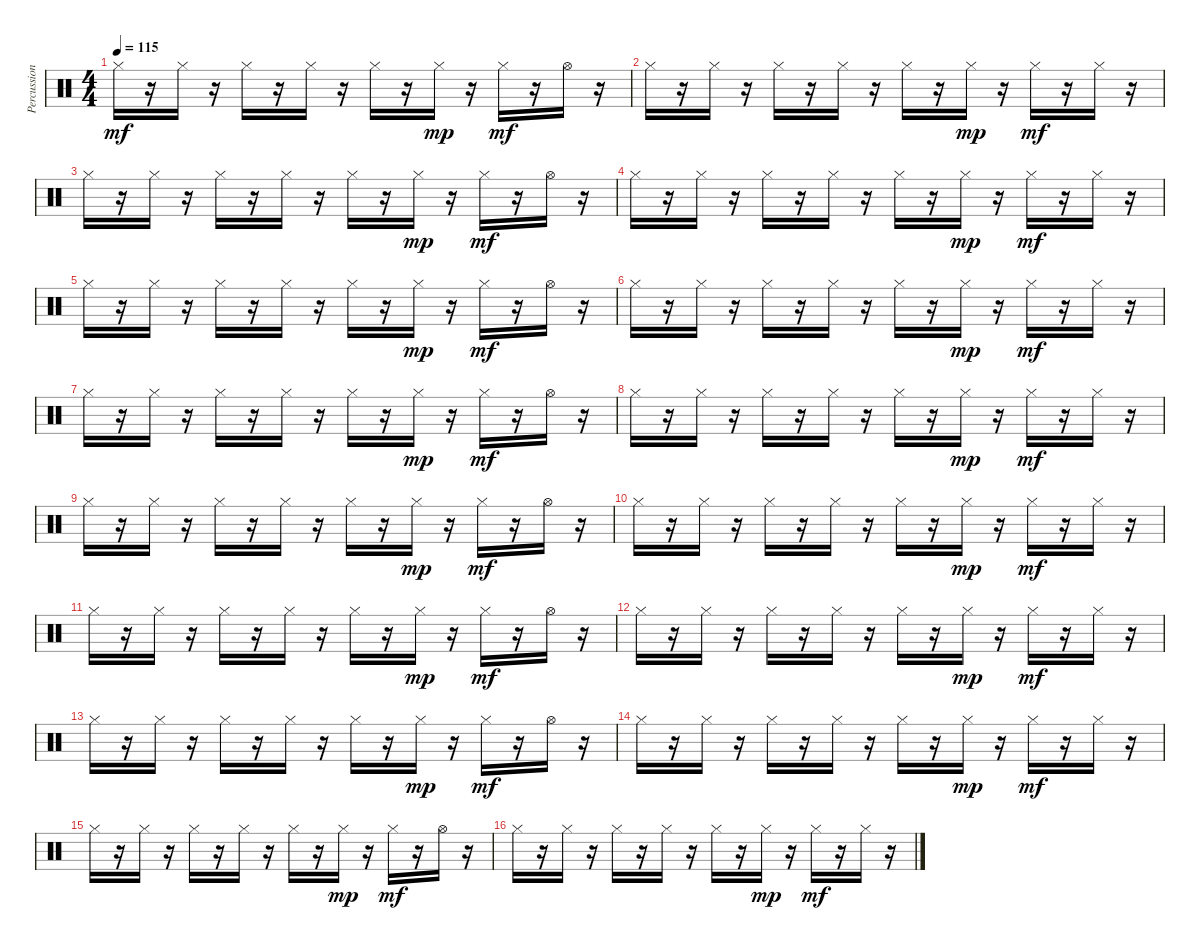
\track ("Percussion" "Percussion") {instrument percussion}
\staff {score}
\articulation defaults
\ts (4 4)
\tempo 115
\clef neutral
\ks c "Hi-Hat (closed)".16{dy mf}
r.16 "Hi-Hat (closed)".16 r.16 "Hi-Hat (closed)".16 r.16 "Hi-Hat (closed)".16 r.16 "Hi-Hat (closed)".16 r.16 "Hi-Hat (closed)".16{dy mp} r.16 "Hi-Hat (closed)".16{dy mf} r.16 "Hi-Hat (open)".16 r.16 |
"Hi-Hat (closed)".16 r.16 "Hi-Hat (closed)".16 r.16 "Hi-Hat (closed)".16 r.16 "Hi-Hat (closed)".16 r.16 "Hi-Hat (closed)".16 r.16 "Hi-Hat (closed)".16{dy mp} r.16 "Hi-Hat (closed)".16{dy mf} r.16 "Hi-Hat (closed)".16 r.16 |
"Hi-Hat (closed)".16 r.16 "Hi-Hat (closed)".16 r.16 "Hi-Hat (closed)".16 r.16 "Hi-Hat (closed)".16 r.16 "Hi-Hat (closed)".16 r.16 "Hi-Hat (closed)".16{dy mp} r.16 "Hi-Hat (closed)".16{dy mf} r.16 "Hi-Hat (open)".16 r.16 |
"Hi-Hat (closed)".16 r.16 "Hi-Hat (closed)".16 r.16 "Hi-Hat (closed)".16 r.16 "Hi-Hat (closed)".16 r.16 "Hi-Hat (closed)".16 r.16 "Hi-Hat (closed)".16{dy mp} r.16 "Hi-Hat (closed)".16{dy mf} r.16 "Hi-Hat (closed)".16 r.16 |
"Hi-Hat (closed)".16 r.16 "Hi-Hat (closed)".16 r.16 "Hi-Hat (closed)".16 r.16 "Hi-Hat (closed)".16 r.16 "Hi-Hat (closed)".16 r.16 "Hi-Hat (closed)".16{dy mp} r.16 "Hi-Hat (closed)".16{dy mf} r.16 "Hi-Hat (open)".16 r.16 |
"Hi-Hat (closed)".16 r.16 "Hi-Hat (closed)".16 r.16 "Hi-Hat (closed)".16 r.16 "Hi-Hat (closed)".16 r.16 "Hi-Hat (closed)".16 r.16 "Hi-Hat (closed)".16{dy mp} r.16 "Hi-Hat (closed)".16{dy mf} r.16 "Hi-Hat (closed)".16 r.16 |
"Hi-Hat (closed)".16 r.16 "Hi-Hat (closed)".16 r.16 "Hi-Hat (closed)".16 r.16 "Hi-Hat (closed)".16 r.16 "Hi-Hat (closed)".16 r.16 "Hi-Hat (closed)".16{dy mp} r.16 "Hi-Hat (closed)".16{dy mf} r.16 "Hi-Hat (open)".16 r.16 |
"Hi-Hat (closed)".16 r.16 "Hi-Hat (closed)".16 r.16 "Hi-Hat (closed)".16 r.16 "Hi-Hat (closed)".16 r.16 "Hi-Hat (closed)".16 r.16 "Hi-Hat (closed)".16{dy mp} r.16 "Hi-Hat (closed)".16{dy mf} r.16 "Hi-Hat (closed)".16 r.16 |
"Hi-Hat (closed)".16 r.16 "Hi-Hat (closed)".16 r.16 "Hi-Hat (closed)".16 r.16 "Hi-Hat (closed)".16 r.16 "Hi-Hat (closed)".16 r.16 "Hi-Hat (closed)".16{dy mp} r.16 "Hi-Hat (closed)".16{dy mf} r.16 "Hi-Hat (open)".16 r.16 |
"Hi-Hat (closed)".16 r.16 "Hi-Hat (closed)".16 r.16 "Hi-Hat (closed)".16 r.16 "Hi-Hat (closed)".16 r.16 "Hi-Hat (closed)".16 r.16 "Hi-Hat (closed)".16{dy mp} r.16 "Hi-Hat (closed)".16{dy mf} r.16 "Hi-Hat (closed)".16 r.16 |
"Hi-Hat (closed)".16 r.16 "Hi-Hat (closed)".16 r.16 "Hi-Hat (closed)".16 r.16 "Hi-Hat (closed)".16 r.16 "Hi-Hat (closed)".16 r.16 "Hi-Hat (closed)".16{dy mp} r.16 "Hi-Hat (closed)".16{dy mf} r.16 "Hi-Hat (open)".16 r.16 |
"Hi-Hat (closed)".16 r.16 "Hi-Hat (closed)".16 r.16 "Hi-Hat (closed)".16 r.16 "Hi-Hat (closed)".16 r.16 "Hi-Hat (closed)".16 r.16 "Hi-Hat (closed)".16{dy mp} r.16 "Hi-Hat (closed)".16{dy mf} r.16 "Hi-Hat (closed)".16 r.16 |
"Hi-Hat (closed)".16 r.16 "Hi-Hat (closed)".16 r.16 "Hi-Hat (closed)".16 r.16 "Hi-Hat (closed)".16 r.16 "Hi-Hat (closed)".16 r.16 "Hi-Hat (closed)".16{dy mp} r.16 "Hi-Hat (closed)".16{dy mf} r.16 "Hi-Hat (open)".16 r.16 |
"Hi-Hat (closed)".16 r.16 "Hi-Hat (closed)".16 r.16 "Hi-Hat (closed)".16 r.16 "Hi-Hat (closed)".16 r.16 "Hi-Hat (closed)".16 r.16 "Hi-Hat (closed)".16{dy mp} r.16 "Hi-Hat (closed)".16{dy mf} r.16 "Hi-Hat (closed)".16 r.16 |
"Hi-Hat (closed)".16 r.16 "Hi-Hat (closed)".16 r.16 "Hi-Hat (closed)".16 r.16 "Hi-Hat (closed)".16 r.16 "Hi-Hat (closed)".16 r.16 "Hi-Hat (closed)".16{dy mp} r.16 "Hi-Hat (closed)".16{dy mf} r.16 "Hi-Hat (open)".16 r.16 |
"Hi-Hat (closed)".16 r.16 "Hi-Hat (closed)".16 r.16 "Hi-Hat (closed)".16 r.16 "Hi-Hat (closed)".16 r.16 "Hi-Hat (closed)".16 r.16 "Hi-Hat (closed)".16{dy mp} r.16 "Hi-Hat (closed)".16{dy mf} r.16 "Hi-Hat (closed)".16 r.16
